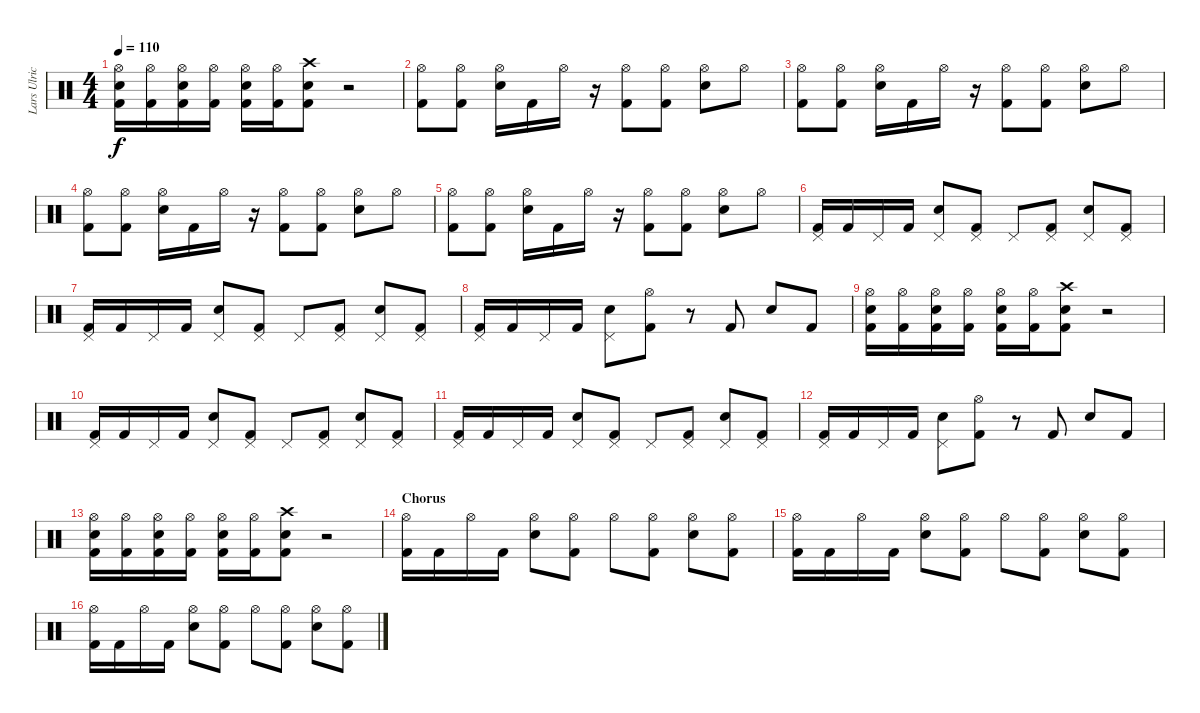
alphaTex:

\track ("Lars Ulrich" "Lars Ulric") {instrument percussion}
\staff {score}
\articulation defaults
\ts (4 4)
\tempo 110
\clef neutral
\ks c
("Hi-Hat (open)" "Electric Snare (hit)" "Kick (hit) 2").16{dy f} ("Hi-Hat (open)" "Kick (hit) 2").16 ("Hi-Hat (open)" "Electric Snare (hit)" "Kick (hit) 2").16 ("Hi-Hat (open)" "Kick (hit) 2").16 ("Hi-Hat (open)" "Electric Snare (hit)" "Kick (hit) 2").16 ("Hi-Hat (open)" "Kick (hit) 2").16 ("Crash high (hit)" "Electric Snare (hit)" "Kick (hit) 2").8 r.2 |
("Hi-Hat (open)" "Kick (hit) 2").8 ("Hi-Hat (open)" "Kick (hit) 2").8 ("Hi-Hat (open)" "Electric Snare (hit)").16 "Kick (hit) 2".16 "Hi-Hat (open)".16 r.16 ("Hi-Hat (open)" "Kick (hit) 2").8 ("Hi-Hat (open)" "Kick (hit) 2").8 ("Hi-Hat (open)" "Electric Snare (hit)").8 "Hi-Hat (open)".8 |
("Hi-Hat (open)" "Kick (hit) 2").8 ("Hi-Hat (open)" "Kick (hit) 2").8 ("Hi-Hat (open)" "Electric Snare (hit)").16 "Kick (hit) 2".16 "Hi-Hat (open)".16 r.16 ("Hi-Hat (open)" "Kick (hit) 2").8 ("Hi-Hat (open)" "Kick (hit) 2").8 ("Hi-Hat (open)" "Electric Snare (hit)").8 "Hi-Hat (open)".8 |
("Hi-Hat (open)" "Kick (hit) 2").8 ("Hi-Hat (open)" "Kick (hit) 2").8 ("Hi-Hat (open)" "Electric Snare (hit)").16 "Kick (hit) 2".16 "Hi-Hat (open)".16 r.16 ("Hi-Hat (open)" "Kick (hit) 2").8 ("Hi-Hat (open)" "Kick (hit) 2").8 ("Hi-Hat (open)" "Electric Snare (hit)").8 "Hi-Hat (open)".8 |
("Hi-Hat (open)" "Kick (hit) 2").8 ("Hi-Hat (open)" "Kick (hit) 2").8 ("Hi-Hat (open)" "Electric Snare (hit)").16 "Kick (hit) 2".16 "Hi-Hat (open)".16 r.16 ("Hi-Hat (open)" "Kick (hit) 2").8 ("Hi-Hat (open)" "Kick (hit) 2").8 ("Hi-Hat (open)" "Electric Snare (hit)").8 "Hi-Hat (open)".8 |
("Pedal Hi-Hat (hit)" "Kick (hit) 2").16 "Kick (hit) 2".16 "Pedal Hi-Hat (hit)".16 "Kick (hit) 2".16 ("Pedal Hi-Hat (hit)" "Electric Snare (hit)").8 ("Pedal Hi-Hat (hit)" "Kick (hit) 2").8 "Pedal Hi-Hat (hit)".8 ("Pedal Hi-Hat (hit)" "Kick (hit) 2").8 ("Pedal Hi-Hat (hit)" "Electric Snare (hit)").8 ("Pedal Hi-Hat (hit)" "Kick (hit) 2").8 |
("Pedal Hi-Hat (hit)" "Kick (hit) 2").16 "Kick (hit) 2".16 "Pedal Hi-Hat (hit)".16 "Kick (hit) 2".16 ("Pedal Hi-Hat (hit)" "Electric Snare (hit)").8 ("Pedal Hi-Hat (hit)" "Kick (hit) 2").8 "Pedal Hi-Hat (hit)".8 ("Pedal Hi-Hat (hit)" "Kick (hit) 2").8 ("Pedal Hi-Hat (hit)" "Electric Snare (hit)").8 ("Pedal Hi-Hat (hit)" "Kick (hit) 2").8 |
("Pedal Hi-Hat (hit)" "Kick (hit) 2").16 "Kick (hit) 2".16 "Pedal Hi-Hat (hit)".16 "Kick (hit) 2".16 ("Pedal Hi-Hat (hit)" "Electric Snare (hit)").8 ("Hi-Hat (open)" "Kick (hit) 2").8 r.8 "Kick (hit) 2".8 "Electric Snare (hit)".8 "Kick (hit) 2".8 |
("Hi-Hat (open)" "Electric Snare (hit)" "Kick (hit) 2").16 ("Hi-Hat (open)" "Kick (hit) 2").16 ("Hi-Hat (open)" "Electric Snare (hit)" "Kick (hit) 2").16 ("Hi-Hat (open)" "Kick (hit) 2").16 ("Hi-Hat (open)" "Electric Snare (hit)" "Kick (hit) 2").16 ("Hi-Hat (open)" "Kick (hit) 2").16 ("Crash high (hit)" "Electric Snare (hit)" "Kick (hit) 2").8 r.2 |
("Pedal Hi-Hat (hit)" "Kick (hit) 2").16 "Kick (hit) 2".16 "Pedal Hi-Hat (hit)".16 "Kick (hit) 2".16 ("Pedal Hi-Hat (hit)" "Electric Snare (hit)").8 ("Pedal Hi-Hat (hit)" "Kick (hit) 2").8 "Pedal Hi-Hat (hit)".8 ("Pedal Hi-Hat (hit)" "Kick (hit) 2").8 ("Pedal Hi-Hat (hit)" "Electric Snare (hit)").8 ("Pedal Hi-Hat (hit)" "Kick (hit) 2").8 |
("Pedal Hi-Hat (hit)" "Kick (hit) 2").16 "Kick (hit) 2".16 "Pedal Hi-Hat (hit)".16 "Kick (hit) 2".16 ("Pedal Hi-Hat (hit)" "Electric Snare (hit)").8 ("Pedal Hi-Hat (hit)" "Kick (hit) 2").8 "Pedal Hi-Hat (hit)".8 ("Pedal Hi-Hat (hit)" "Kick (hit) 2").8 ("Pedal Hi-Hat (hit)" "Electric Snare (hit)").8 ("Pedal Hi-Hat (hit)" "Kick (hit) 2").8 |
("Pedal Hi-Hat (hit)" "Kick (hit) 2").16 "Kick (hit) 2".16 "Pedal Hi-Hat (hit)".16 "Kick (hit) 2".16 ("Pedal Hi-Hat (hit)" "Electric Snare (hit)").8 ("Hi-Hat (open)" "Kick (hit) 2").8 r.8 "Kick (hit) 2".8 "Electric Snare (hit)".8 "Kick (hit) 2".8 |
("Hi-Hat (open)" "Electric Snare (hit)" "Kick (hit) 2").16 ("Hi-Hat (open)" "Kick (hit) 2").16 ("Hi-Hat (open)" "Electric Snare (hit)" "Kick (hit) 2").16 ("Hi-Hat (open)" "Kick (hit) 2").16 ("Hi-Hat (open)" "Electric Snare (hit)" "Kick (hit) 2").16 ("Hi-Hat (open)" "Kick (hit) 2").16 ("Crash high (hit)" "Electric Snare (hit)" "Kick (hit) 2").8 r.2 |
\section ("" "Chorus")
("Hi-Hat (open)" "Kick (hit) 2").16 "Kick (hit) 2".16 "Hi-Hat (open)".16 "Kick (hit) 2".16 ("Hi-Hat (open)" "Electric Snare (hit)").8 ("Hi-Hat (open)" "Kick (hit) 2").8 "Hi-Hat (open)".8 ("Hi-Hat (open)" "Kick (hit) 2").8 ("Hi-Hat (open)" "Electric Snare (hit)").8 ("Hi-Hat (open)" "Kick (hit) 2").8 |
("Hi-Hat (open)" "Kick (hit) 2").16 "Kick (hit) 2".16 "Hi-Hat (open)".16 "Kick (hit) 2".16 ("Hi-Hat (open)" "Electric Snare (hit)").8 ("Hi-Hat (open)" "Kick (hit) 2").8 "Hi-Hat (open)".8 ("Hi-Hat (open)" "Kick (hit) 2").8 ("Hi-Hat (open)" "Electric Snare (hit)").8 ("Hi-Hat (open)" "Kick (hit) 2").8 |
("Hi-Hat (open)" "Kick (hit) 2").16 "Kick (hit) 2".16 "Hi-Hat (open)".16 "Kick (hit) 2".16 ("Hi-Hat (open)" "Electric Snare (hit)").8 ("Hi-Hat (open)" "Kick (hit) 2").8 "Hi-Hat (open)".8 ("Hi-Hat (open)" "Kick (hit) 2").8 ("Hi-Hat (open)" "Electric Snare (hit)").8 ("Hi-Hat (open)" "Kick (hit) 2").8
